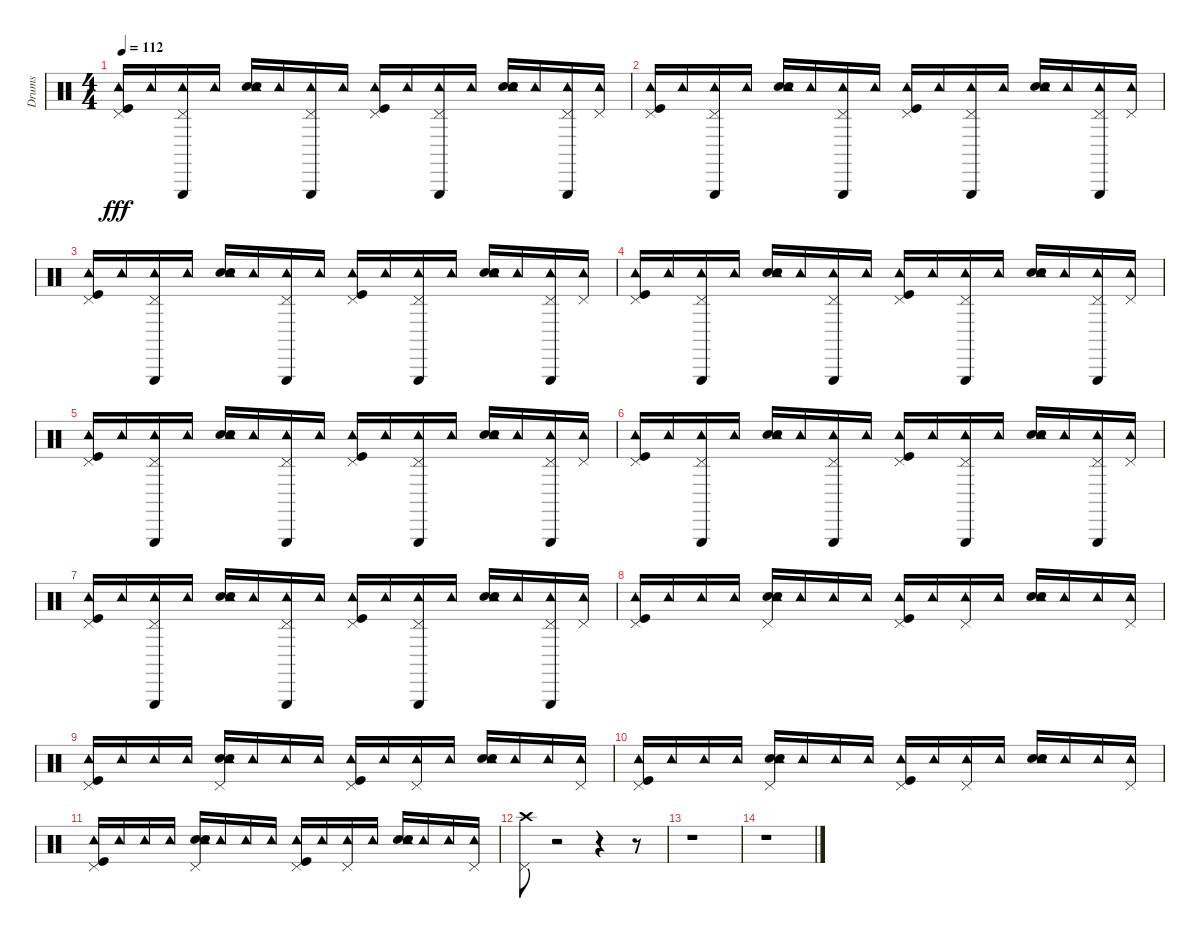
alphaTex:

\track ("Drums" "Drums") {instrument percussion}
\staff {score}
\articulation defaults
\ts (4 4)
\tempo 112
\clef neutral
\ks c
("Pedal Hi-Hat (hit)" "Tambourine (hit)" "Kick (hit)").16{dy fff} "Tambourine (hit)".16 ("Pedal Hi-Hat (hit)" "Triangle (hit)" "Tambourine (hit)").16 "Tambourine (hit)".16 ("Snare (hit) 2" "Hand Clap (hit)" "Tambourine (hit)").16 "Tambourine (hit)".16 ("Pedal Hi-Hat (hit)" "Triangle (hit)" "Tambourine (hit)").16 "Tambourine (hit)".16 ("Pedal Hi-Hat (hit)" "Tambourine (hit)" "Kick (hit)").16 "Tambourine (hit)".16 ("Pedal Hi-Hat (hit)" "Triangle (hit)" "Tambourine (hit)").16 "Tambourine (hit)".16 ("Snare (hit) 2" "Hand Clap (hit)" "Tambourine (hit)").16 "Tambourine (hit)".16 ("Pedal Hi-Hat (hit)" "Triangle (hit)" "Tambourine (hit)").16 ("Pedal Hi-Hat (hit)" "Tambourine (hit)").16 |
("Pedal Hi-Hat (hit)" "Tambourine (hit)" "Kick (hit)").16 "Tambourine (hit)".16 ("Pedal Hi-Hat (hit)" "Triangle (hit)" "Tambourine (hit)").16 "Tambourine (hit)".16 ("Snare (hit) 2" "Hand Clap (hit)" "Tambourine (hit)").16 "Tambourine (hit)".16 ("Pedal Hi-Hat (hit)" "Triangle (hit)" "Tambourine (hit)").16 "Tambourine (hit)".16 ("Pedal Hi-Hat (hit)" "Tambourine (hit)" "Kick (hit)").16 "Tambourine (hit)".16 ("Pedal Hi-Hat (hit)" "Triangle (hit)" "Tambourine (hit)").16 "Tambourine (hit)".16 ("Snare (hit) 2" "Hand Clap (hit)" "Tambourine (hit)").16 "Tambourine (hit)".16 ("Pedal Hi-Hat (hit)" "Triangle (hit)" "Tambourine (hit)").16 ("Pedal Hi-Hat (hit)" "Tambourine (hit)").16 |
("Pedal Hi-Hat (hit)" "Tambourine (hit)" "Kick (hit)").16 "Tambourine (hit)".16 ("Pedal Hi-Hat (hit)" "Triangle (hit)" "Tambourine (hit)").16 "Tambourine (hit)".16 ("Snare (hit) 2" "Hand Clap (hit)" "Tambourine (hit)").16 "Tambourine (hit)".16 ("Pedal Hi-Hat (hit)" "Triangle (hit)" "Tambourine (hit)").16 "Tambourine (hit)".16 ("Pedal Hi-Hat (hit)" "Tambourine (hit)" "Kick (hit)").16 "Tambourine (hit)".16 ("Pedal Hi-Hat (hit)" "Triangle (hit)" "Tambourine (hit)").16 "Tambourine (hit)".16 ("Snare (hit) 2" "Hand Clap (hit)" "Tambourine (hit)").16 "Tambourine (hit)".16 ("Pedal Hi-Hat (hit)" "Triangle (hit)" "Tambourine (hit)").16 ("Pedal Hi-Hat (hit)" "Tambourine (hit)").16 |
("Pedal Hi-Hat (hit)" "Tambourine (hit)" "Kick (hit)").16 "Tambourine (hit)".16 ("Pedal Hi-Hat (hit)" "Triangle (hit)" "Tambourine (hit)").16 "Tambourine (hit)".16 ("Snare (hit) 2" "Hand Clap (hit)" "Tambourine (hit)").16 "Tambourine (hit)".16 ("Pedal Hi-Hat (hit)" "Triangle (hit)" "Tambourine (hit)").16 "Tambourine (hit)".16 ("Pedal Hi-Hat (hit)" "Tambourine (hit)" "Kick (hit)").16 "Tambourine (hit)".16 ("Pedal Hi-Hat (hit)" "Triangle (hit)" "Tambourine (hit)").16 "Tambourine (hit)".16 ("Snare (hit) 2" "Hand Clap (hit)" "Tambourine (hit)").16 "Tambourine (hit)".16 ("Pedal Hi-Hat (hit)" "Triangle (hit)" "Tambourine (hit)").16 ("Pedal Hi-Hat (hit)" "Tambourine (hit)").16 |
("Pedal Hi-Hat (hit)" "Tambourine (hit)" "Kick (hit)").16 "Tambourine (hit)".16 ("Pedal Hi-Hat (hit)" "Triangle (hit)" "Tambourine (hit)").16 "Tambourine (hit)".16 ("Snare (hit) 2" "Hand Clap (hit)" "Tambourine (hit)").16 "Tambourine (hit)".16 ("Pedal Hi-Hat (hit)" "Triangle (hit)" "Tambourine (hit)").16 "Tambourine (hit)".16 ("Pedal Hi-Hat (hit)" "Tambourine (hit)" "Kick (hit)").16 "Tambourine (hit)".16 ("Pedal Hi-Hat (hit)" "Triangle (hit)" "Tambourine (hit)").16 "Tambourine (hit)".16 ("Snare (hit) 2" "Hand Clap (hit)" "Tambourine (hit)").16 "Tambourine (hit)".16 ("Pedal Hi-Hat (hit)" "Triangle (hit)" "Tambourine (hit)").16 ("Pedal Hi-Hat (hit)" "Tambourine (hit)").16 |
("Pedal Hi-Hat (hit)" "Tambourine (hit)" "Kick (hit)").16 "Tambourine (hit)".16 ("Pedal Hi-Hat (hit)" "Triangle (hit)" "Tambourine (hit)").16 "Tambourine (hit)".16 ("Snare (hit) 2" "Hand Clap (hit)" "Tambourine (hit)").16 "Tambourine (hit)".16 ("Pedal Hi-Hat (hit)" "Triangle (hit)" "Tambourine (hit)").16 "Tambourine (hit)".16 ("Pedal Hi-Hat (hit)" "Tambourine (hit)" "Kick (hit)").16 "Tambourine (hit)".16 ("Pedal Hi-Hat (hit)" "Triangle (hit)" "Tambourine (hit)").16 "Tambourine (hit)".16 ("Snare (hit) 2" "Hand Clap (hit)" "Tambourine (hit)").16 "Tambourine (hit)".16 ("Pedal Hi-Hat (hit)" "Triangle (hit)" "Tambourine (hit)").16 ("Pedal Hi-Hat (hit)" "Tambourine (hit)").16 |
("Pedal Hi-Hat (hit)" "Tambourine (hit)" "Kick (hit)").16 "Tambourine (hit)".16 ("Pedal Hi-Hat (hit)" "Triangle (hit)" "Tambourine (hit)").16 "Tambourine (hit)".16 ("Snare (hit) 2" "Hand Clap (hit)" "Tambourine (hit)").16 "Tambourine (hit)".16 ("Pedal Hi-Hat (hit)" "Triangle (hit)" "Tambourine (hit)").16 "Tambourine (hit)".16 ("Pedal Hi-Hat (hit)" "Tambourine (hit)" "Kick (hit)").16 "Tambourine (hit)".16 ("Pedal Hi-Hat (hit)" "Triangle (hit)" "Tambourine (hit)").16 "Tambourine (hit)".16 ("Snare (hit) 2" "Hand Clap (hit)" "Tambourine (hit)").16 "Tambourine (hit)".16 ("Pedal Hi-Hat (hit)" "Triangle (hit)" "Tambourine (hit)").16 ("Pedal Hi-Hat (hit)" "Tambourine (hit)").16 |
("Tambourine (hit)" "Pedal Hi-Hat (hit)" "Kick (hit)").16 "Tambourine (hit)".16 "Tambourine (hit)".16 "Tambourine (hit)".16 ("Snare (hit) 2" "Hand Clap (hit)" "Pedal Hi-Hat (hit)" "Tambourine (hit)").16 "Tambourine (hit)".16 "Tambourine (hit)".16 "Tambourine (hit)".16 ("Pedal Hi-Hat (hit)" "Tambourine (hit)" "Kick (hit)").16 "Tambourine (hit)".16 ("Tambourine (hit)" "Pedal Hi-Hat (hit)").16 "Tambourine (hit)".16 ("Snare (hit) 2" "Hand Clap (hit)" "Tambourine (hit)").16 "Tambourine (hit)".16 "Tambourine (hit)".16 ("Pedal Hi-Hat (hit)" "Tambourine (hit)").16 |
("Tambourine (hit)" "Pedal Hi-Hat (hit)" "Kick (hit)").16 "Tambourine (hit)".16 "Tambourine (hit)".16 "Tambourine (hit)".16 ("Snare (hit) 2" "Hand Clap (hit)" "Pedal Hi-Hat (hit)" "Tambourine (hit)").16 "Tambourine (hit)".16 "Tambourine (hit)".16 "Tambourine (hit)".16 ("Pedal Hi-Hat (hit)" "Tambourine (hit)" "Kick (hit)").16 "Tambourine (hit)".16 ("Tambourine (hit)" "Pedal Hi-Hat (hit)").16 "Tambourine (hit)".16 ("Snare (hit) 2" "Hand Clap (hit)" "Tambourine (hit)").16 "Tambourine (hit)".16 "Tambourine (hit)".16 ("Pedal Hi-Hat (hit)" "Tambourine (hit)").16 |
("Tambourine (hit)" "Pedal Hi-Hat (hit)" "Kick (hit)").16 "Tambourine (hit)".16 "Tambourine (hit)".16 "Tambourine (hit)".16 ("Snare (hit) 2" "Hand Clap (hit)" "Pedal Hi-Hat (hit)" "Tambourine (hit)").16 "Tambourine (hit)".16 "Tambourine (hit)".16 "Tambourine (hit)".16 ("Pedal Hi-Hat (hit)" "Tambourine (hit)" "Kick (hit)").16 "Tambourine (hit)".16 ("Tambourine (hit)" "Pedal Hi-Hat (hit)").16 "Tambourine (hit)".16 ("Snare (hit) 2" "Hand Clap (hit)" "Tambourine (hit)").16 "Tambourine (hit)".16 "Tambourine (hit)".16 ("Pedal Hi-Hat (hit)" "Tambourine (hit)").16 |
("Tambourine (hit)" "Pedal Hi-Hat (hit)" "Kick (hit)").16 "Tambourine (hit)".16 "Tambourine (hit)".16 "Tambourine (hit)".16 ("Snare (hit) 2" "Hand Clap (hit)" "Pedal Hi-Hat (hit)" "Tambourine (hit)").16 "Tambourine (hit)".16 "Tambourine (hit)".16 "Tambourine (hit)".16 ("Pedal Hi-Hat (hit)" "Tambourine (hit)" "Kick (hit)").16 "Tambourine (hit)".16 ("Tambourine (hit)" "Pedal Hi-Hat (hit)").16 "Tambourine (hit)".16 ("Snare (hit) 2" "Hand Clap (hit)" "Tambourine (hit)").16 "Tambourine (hit)".16 "Tambourine (hit)".16 ("Pedal Hi-Hat (hit)" "Tambourine (hit)").16 |
("Pedal Hi-Hat (hit)" "Crash high (hit)").8 r.2 r.4 r.8 |
r.1 |
r.1
